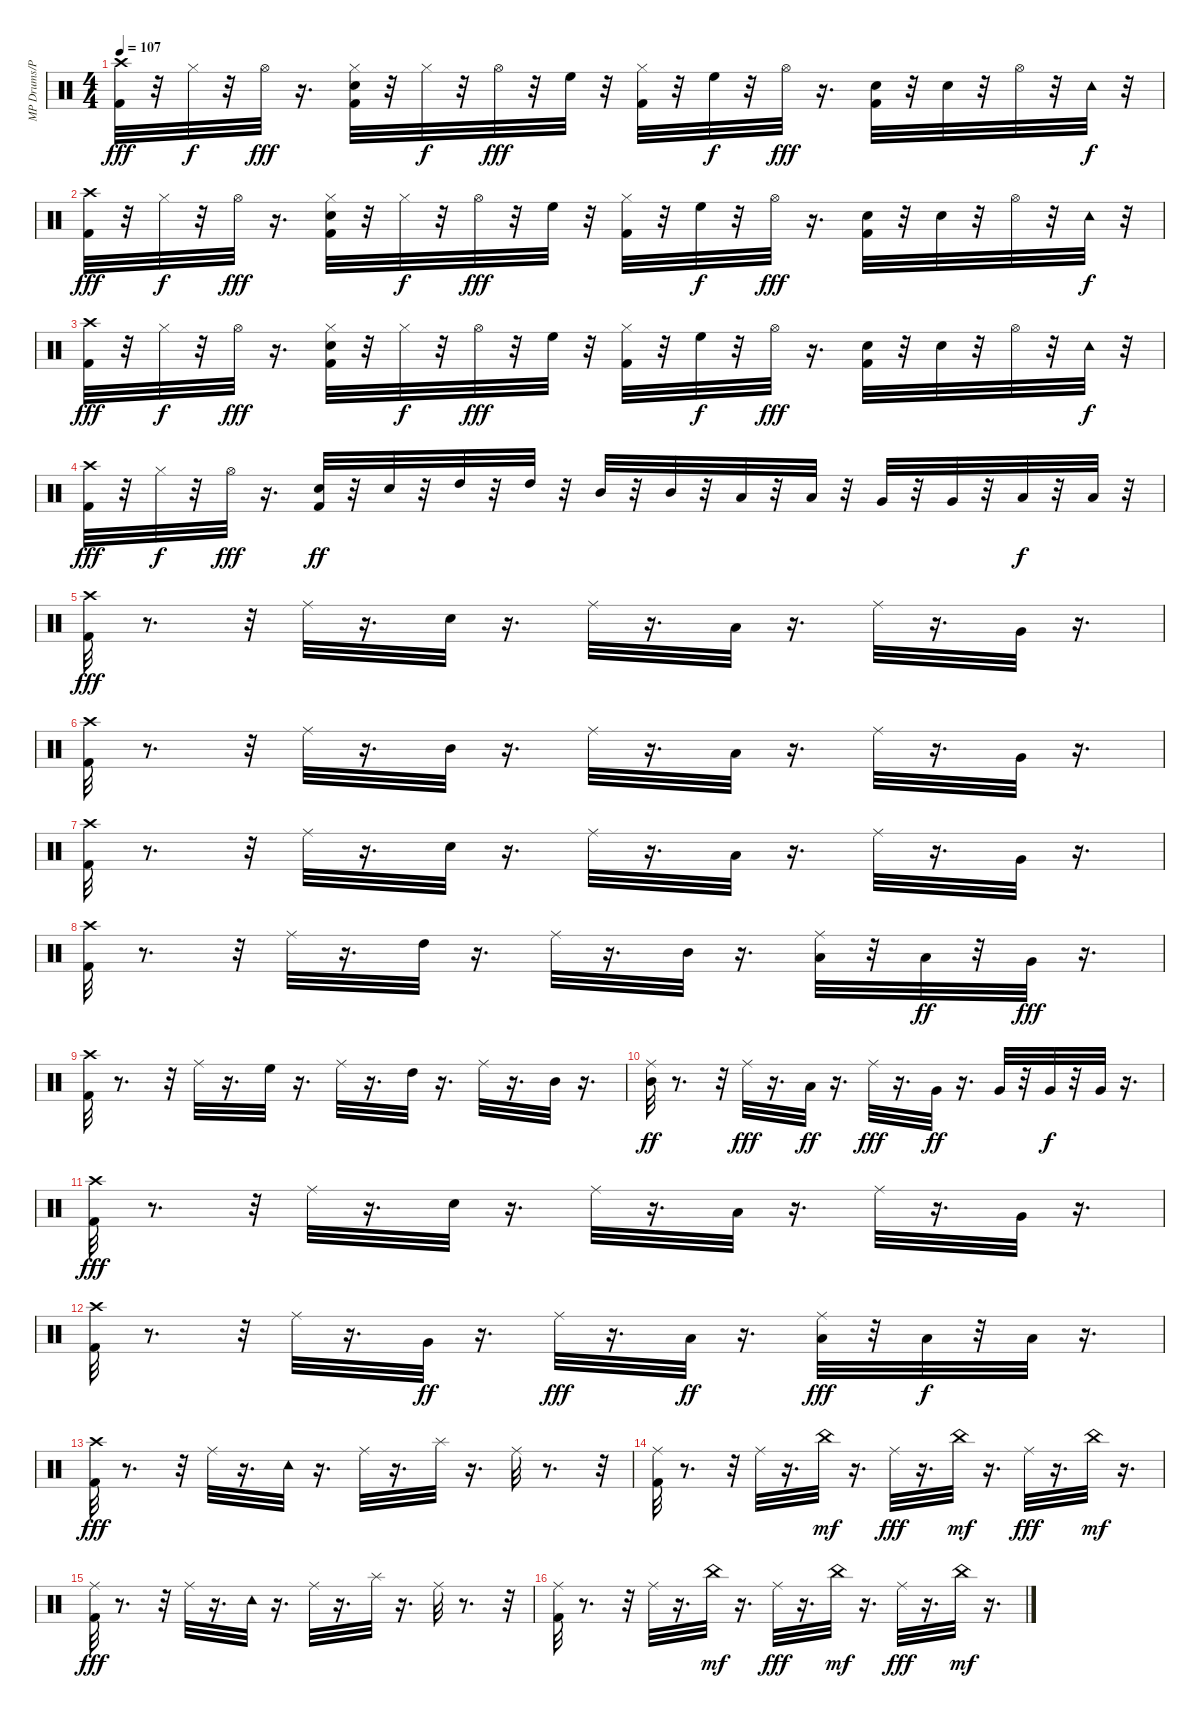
\track ("MP Drums/Percussion" "MP Drums/P") {instrument percussion}
\staff {score}
\articulation defaults
\ts (4 4)
\tempo 107
\clef neutral
\ks c
("Kick (hit) 2" "Crash high (hit)").32{dy fff} r.32 "Hi-Hat (closed)".32{dy f} r.32 "Hi-Hat (open)".32{dy fff} r.16{d} ("Kick (hit) 2" "Hi-Hat (closed)" "Snare (hit) 2").32 r.32 "Hi-Hat (closed)".32{dy f} r.32 "Hi-Hat (open)".32{dy fff} r.32 "High Floor Tom (hit)".32 r.32 ("Kick (hit) 2" "Hi-Hat (closed)").32 r.32 "High Floor Tom (hit)".32{dy f} r.32 "Hi-Hat (open)".32{dy fff} r.16{d} ("Kick (hit) 2" "Snare (hit) 2").32 r.32 "Snare (hit) 2".32 r.32 "Hi-Hat (open)".32 r.32 "Tambourine (hit)".32{dy f} r.32 |
("Kick (hit) 2" "Crash high (hit)").32{dy fff} r.32 "Hi-Hat (closed)".32{dy f} r.32 "Hi-Hat (open)".32{dy fff} r.16{d} ("Kick (hit) 2" "Hi-Hat (closed)" "Snare (hit) 2").32 r.32 "Hi-Hat (closed)".32{dy f} r.32 "Hi-Hat (open)".32{dy fff} r.32 "High Floor Tom (hit)".32 r.32 ("Kick (hit) 2" "Hi-Hat (closed)").32 r.32 "High Floor Tom (hit)".32{dy f} r.32 "Hi-Hat (open)".32{dy fff} r.16{d} ("Kick (hit) 2" "Snare (hit) 2").32 r.32 "Snare (hit) 2".32 r.32 "Hi-Hat (open)".32 r.32 "Tambourine (hit)".32{dy f} r.32 |
("Kick (hit) 2" "Crash high (hit)").32{dy fff} r.32 "Hi-Hat (closed)".32{dy f} r.32 "Hi-Hat (open)".32{dy fff} r.16{d} ("Kick (hit) 2" "Hi-Hat (closed)" "Snare (hit) 2").32 r.32 "Hi-Hat (closed)".32{dy f} r.32 "Hi-Hat (open)".32{dy fff} r.32 "High Floor Tom (hit)".32 r.32 ("Kick (hit) 2" "Hi-Hat (closed)").32 r.32 "High Floor Tom (hit)".32{dy f} r.32 "Hi-Hat (open)".32{dy fff} r.16{d} ("Kick (hit) 2" "Snare (hit) 2").32 r.32 "Snare (hit) 2".32 r.32 "Hi-Hat (open)".32 r.32 "Tambourine (hit)".32{dy f} r.32 |
("Kick (hit) 2" "Crash high (hit)").32{dy fff} r.32 "Hi-Hat (closed)".32{dy f} r.32 "Hi-Hat (open)".32{dy fff} r.16{d} ("Kick (hit) 2" "Snare (hit) 2").32{dy ff} r.32 "Snare (hit) 2".32 r.32 "High Tom (hit)".32 r.32 "High Tom (hit)".32 r.32 "Mid Tom (hit)".32 r.32 "Mid Tom (hit)".32 r.32 "Low Tom (hit)".32 r.32 "Low Tom (hit)".32 r.32 "Very Low Tom (hit)".32 r.32 "Very Low Tom (hit)".32 r.32 "Low Floor Tom (hit)".32{dy f} r.32 "Low Floor Tom (hit)".32 r.32 |
("Kick (hit) 2" "Crash high (hit)").32{dy fff} r.8{d} r.32 "Ride (middle)".32 r.16{d} "Snare (hit) 2".32 r.16{d} "Ride (middle)".32 r.16{d} "Low Tom (hit)".32 r.16{d} "Ride (middle)".32 r.16{d} "Very Low Tom (hit)".32 r.16{d} |
("Kick (hit) 2" "Crash high (hit)").32 r.8{d} r.32 "Ride (middle)".32 r.16{d} "Mid Tom (hit)".32 r.16{d} "Ride (middle)".32 r.16{d} "Low Tom (hit)".32 r.16{d} "Ride (middle)".32 r.16{d} "Very Low Tom (hit)".32 r.16{d} |
("Kick (hit) 2" "Crash high (hit)").32 r.8{d} r.32 "Ride (middle)".32 r.16{d} "Snare (hit) 2".32 r.16{d} "Ride (middle)".32 r.16{d} "Low Tom (hit)".32 r.16{d} "Ride (middle)".32 r.16{d} "Very Low Tom (hit)".32 r.16{d} |
("Kick (hit) 2" "Crash high (hit)").32 r.8{d} r.32 "Ride (middle)".32 r.16{d} "High Tom (hit)".32 r.16{d} "Ride (middle)".32 r.16{d} "Mid Tom (hit)".32 r.16{d} ("Ride (middle)" "Low Tom (hit)").32 r.32 "Low Tom (hit)".32{dy ff} r.32 "Very Low Tom (hit)".32{dy fff} r.16{d} |
("Kick (hit) 2" "Crash high (hit)").32 r.8{d} r.32 "Ride (middle)".32 r.16{d} "High Floor Tom (hit)".32 r.16{d} "Ride (middle)".32 r.16{d} "High Tom (hit)".32 r.16{d} "Ride (middle)".32 r.16{d} "Mid Tom (hit)".32 r.16{d} |
("Ride (middle)" "Mid Tom (hit)").32{dy ff} r.8{d} r.32 "Ride (middle)".32{dy fff} r.16{d} "Low Tom (hit)".32{dy ff} r.16{d} "Ride (middle)".32{dy fff} r.16{d} "Very Low Tom (hit)".32{dy ff} r.16{d} "Very Low Tom (hit)".32 r.32 "Very Low Tom (hit)".32{dy f} r.32 "Very Low Tom (hit)".32 r.16{d} |
("Kick (hit) 2" "Crash high (hit)").32{dy fff} r.8{d} r.32 "Ride (middle)".32 r.16{d} "Snare (hit) 2".32 r.16{d} "Ride (middle)".32 r.16{d} "Low Tom (hit)".32 r.16{d} "Ride (middle)".32 r.16{d} "Very Low Tom (hit)".32 r.16{d} |
("Kick (hit) 2" "Crash high (hit)").32 r.8{d} r.32 "Ride (middle)".32 r.16{d} "Very Low Tom (hit)".32{dy ff} r.16{d} "Ride (middle)".32{dy fff} r.16{d} "Low Floor Tom (hit)".32{dy ff} r.16{d} ("Ride (middle)" "Low Floor Tom (hit)").32{dy fff} r.32 "Low Floor Tom (hit)".32{dy f} r.32 "Low Floor Tom (hit)".32 r.16{d} |
("Kick (hit) 2" "Crash high (hit)").32{dy fff} r.8{d} r.32 "Ride (middle)".32 r.16{d} "Tambourine (hit)".32 r.16{d} "Ride (middle)".32 r.16{d} "Splash (hit)".32 r.16{d} "Ride (middle)".32 r.8{d} r.32 |
("Kick (hit) 2" "Ride (middle)").32 r.8{d} r.32 "Ride (middle)".32 r.16{d} "China (hit)".32{dy mf} r.16{d} "Ride (middle)".32{dy fff} r.16{d} "China (hit)".32{dy mf} r.16{d} "Ride (middle)".32{dy fff} r.16{d} "China (hit)".32{dy mf} r.16{d} |
("Kick (hit) 2" "Ride (middle)").32{dy fff} r.8{d} r.32 "Ride (middle)".32 r.16{d} "Tambourine (hit)".32 r.16{d} "Ride (middle)".32 r.16{d} "Splash (hit)".32 r.16{d} "Ride (middle)".32 r.8{d} r.32 |
("Kick (hit) 2" "Ride (middle)").32 r.8{d} r.32 "Ride (middle)".32 r.16{d} "China (hit)".32{dy mf} r.16{d} "Ride (middle)".32{dy fff} r.16{d} "China (hit)".32{dy mf} r.16{d} "Ride (middle)".32{dy fff} r.16{d} "China (hit)".32{dy mf} r.16{d}
